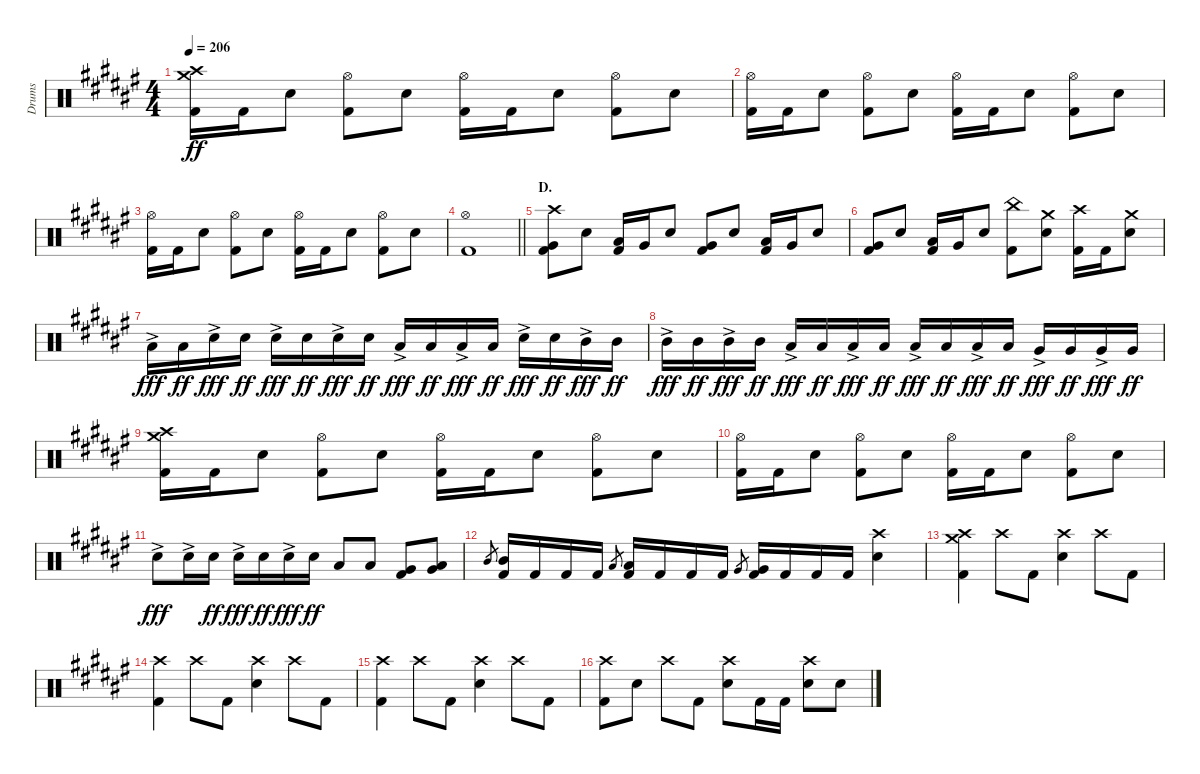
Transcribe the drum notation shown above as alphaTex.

\track ("Drums" "Drums") {instrument percussion}
\staff {score}
\articulation defaults
\ts (4 4)
\tempo 206
\clef neutral
\ks f#
("Crash medium (hit)" "Crash high (hit)" "Kick (hit) 2").16{dy ff} "Kick (hit) 2".16 "Electric Snare (hit)".8 ("Hi-Hat (open)" "Kick (hit) 2").8 "Electric Snare (hit)".8 ("Hi-Hat (open)" "Kick (hit) 2").16 "Kick (hit) 2".16 "Electric Snare (hit)".8 ("Hi-Hat (open)" "Kick (hit) 2").8 "Electric Snare (hit)".8 |
("Hi-Hat (open)" "Kick (hit) 2").16 "Kick (hit) 2".16 "Electric Snare (hit)".8 ("Hi-Hat (open)" "Kick (hit) 2").8 "Electric Snare (hit)".8 ("Hi-Hat (open)" "Kick (hit) 2").16 "Kick (hit) 2".16 "Electric Snare (hit)".8 ("Hi-Hat (open)" "Kick (hit) 2").8 "Electric Snare (hit)".8 |
("Hi-Hat (open)" "Kick (hit) 2").16 "Kick (hit) 2".16 "Electric Snare (hit)".8 ("Hi-Hat (open)" "Kick (hit) 2").8 "Electric Snare (hit)".8 ("Hi-Hat (open)" "Kick (hit) 2").16 "Kick (hit) 2".16 "Electric Snare (hit)".8 ("Hi-Hat (open)" "Kick (hit) 2").8 "Electric Snare (hit)".8 |
\barLineRight lightlight
("Hi-Hat (open)" "Kick (hit) 2").1 |
\section ("" "D.")
("Crash high (hit)" "Very Low Tom (hit)" "Kick (hit) 2").8 "Electric Snare (hit)".8 ("Low Tom (hit)" "Kick (hit) 2").16 "Very Low Tom (hit)".16 "Electric Snare (hit)".8 ("Very Low Tom (hit)" "Kick (hit) 2").8 "Electric Snare (hit)".8 ("Low Tom (hit)" "Kick (hit) 2").16 "Very Low Tom (hit)".16 "Electric Snare (hit)".8 |
("Very Low Tom (hit)" "Kick (hit) 2").8 "Electric Snare (hit)".8 ("Low Tom (hit)" "Kick (hit) 2").16 "Very Low Tom (hit)".16 "Electric Snare (hit)".8 ("China (hit)" "Kick (hit) 2").8 ("Crash medium (hit)" "Electric Snare (hit)").8 ("Crash high (hit)" "Kick (hit) 2").16 "Kick (hit) 2".16 ("Crash medium (hit)" "Electric Snare (hit)").8 |
"Low Tom (hit)"{ac}.16{dy fff} "Low Tom (hit)".16{dy ff} "Electric Snare (hit)"{ac}.16{dy fff} "Electric Snare (hit)".16{dy ff} "Electric Snare (hit)"{ac}.16{dy fff} "Electric Snare (hit)".16{dy ff} "Electric Snare (hit)"{ac}.16{dy fff} "Electric Snare (hit)".16{dy ff} "Low Tom (hit)"{ac}.16{dy fff} "Low Tom (hit)".16{dy ff} "Low Tom (hit)"{ac}.16{dy fff} "Low Tom (hit)".16{dy ff} "Electric Snare (hit)"{ac}.16{dy fff} "Electric Snare (hit)".16{dy ff} "Mid Tom (hit)"{ac}.16{dy fff} "Mid Tom (hit)".16{dy ff} |
"Mid Tom (hit)"{ac}.16{dy fff} "Mid Tom (hit)".16{dy ff} "Mid Tom (hit)"{ac}.16{dy fff} "Mid Tom (hit)".16{dy ff} "Low Tom (hit)"{ac}.16{dy fff} "Low Tom (hit)".16{dy ff} "Low Tom (hit)"{ac}.16{dy fff} "Low Tom (hit)".16{dy ff} "Low Tom (hit)"{ac}.16{dy fff} "Low Tom (hit)".16{dy ff} "Low Tom (hit)"{ac}.16{dy fff} "Low Tom (hit)".16{dy ff} "Very Low Tom (hit)"{ac}.16{dy fff} "Very Low Tom (hit)".16{dy ff} "Very Low Tom (hit)"{ac}.16{dy fff} "Very Low Tom (hit)".16{dy ff} |
("Crash medium (hit)" "Crash high (hit)" "Kick (hit) 2").16 "Kick (hit) 2".16 "Electric Snare (hit)".8 ("Hi-Hat (open)" "Kick (hit) 2").8 "Electric Snare (hit)".8 ("Hi-Hat (open)" "Kick (hit) 2").16 "Kick (hit) 2".16 "Electric Snare (hit)".8 ("Hi-Hat (open)" "Kick (hit) 2").8 "Electric Snare (hit)".8 |
("Hi-Hat (open)" "Kick (hit) 2").16 "Kick (hit) 2".16 "Electric Snare (hit)".8 ("Hi-Hat (open)" "Kick (hit) 2").8 "Electric Snare (hit)".8 ("Hi-Hat (open)" "Kick (hit) 2").16 "Kick (hit) 2".16 "Electric Snare (hit)".8 ("Hi-Hat (open)" "Kick (hit) 2").8 "Electric Snare (hit)".8 |
"Electric Snare (hit)"{ac}.8{dy fff} "Electric Snare (hit)"{ac}.16 "Electric Snare (hit)".16{dy ff} "Electric Snare (hit)"{ac}.16{dy fff} "Electric Snare (hit)".16{dy ff} "Electric Snare (hit)"{ac}.16{dy fff} "Electric Snare (hit)".16{dy ff} "Low Tom (hit)".8 "Low Tom (hit)".8 ("Very Low Tom (hit)" "Kick (hit) 2").8 ("Very Low Tom (hit)" "Low Floor Tom (hit)").8 |
"Mid Tom (hit)".8{gr} ("Mid Tom (hit)" "Kick (hit) 2").16 "Kick (hit) 2".16 "Kick (hit) 2".16 "Kick (hit) 2".16 "Low Tom (hit)".8{gr} ("Low Tom (hit)" "Kick (hit) 2").16 "Kick (hit) 2".16 "Kick (hit) 2".16 "Kick (hit) 2".16 "Very Low Tom (hit)".8{gr} ("Very Low Tom (hit)" "Kick (hit) 2").16 "Kick (hit) 2".16 "Kick (hit) 2".16 "Kick (hit) 2".16 ("Crash high (hit)" "Electric Snare (hit)").4 |
("Crash medium (hit)" "Crash high (hit)" "Kick (hit) 2").4 "Crash high (hit)".8 "Kick (hit) 2".8 ("Crash high (hit)" "Electric Snare (hit)").4 "Crash high (hit)".8 "Kick (hit) 2".8 |
("Crash high (hit)" "Kick (hit) 2").4 "Crash high (hit)".8 "Kick (hit) 2".8 ("Crash high (hit)" "Electric Snare (hit)").4 "Crash high (hit)".8 "Kick (hit) 2".8 |
("Crash high (hit)" "Kick (hit) 2").4 "Crash high (hit)".8 "Kick (hit) 2".8 ("Crash high (hit)" "Electric Snare (hit)").4 "Crash high (hit)".8 "Kick (hit) 2".8 |
("Crash high (hit)" "Kick (hit) 2").8 "Electric Snare (hit)".8 "Crash high (hit)".8 "Kick (hit) 2".8 ("Crash high (hit)" "Electric Snare (hit)").8 "Kick (hit) 2".16 "Kick (hit) 2".16 ("Crash high (hit)" "Electric Snare (hit)").8 "Electric Snare (hit)".8
